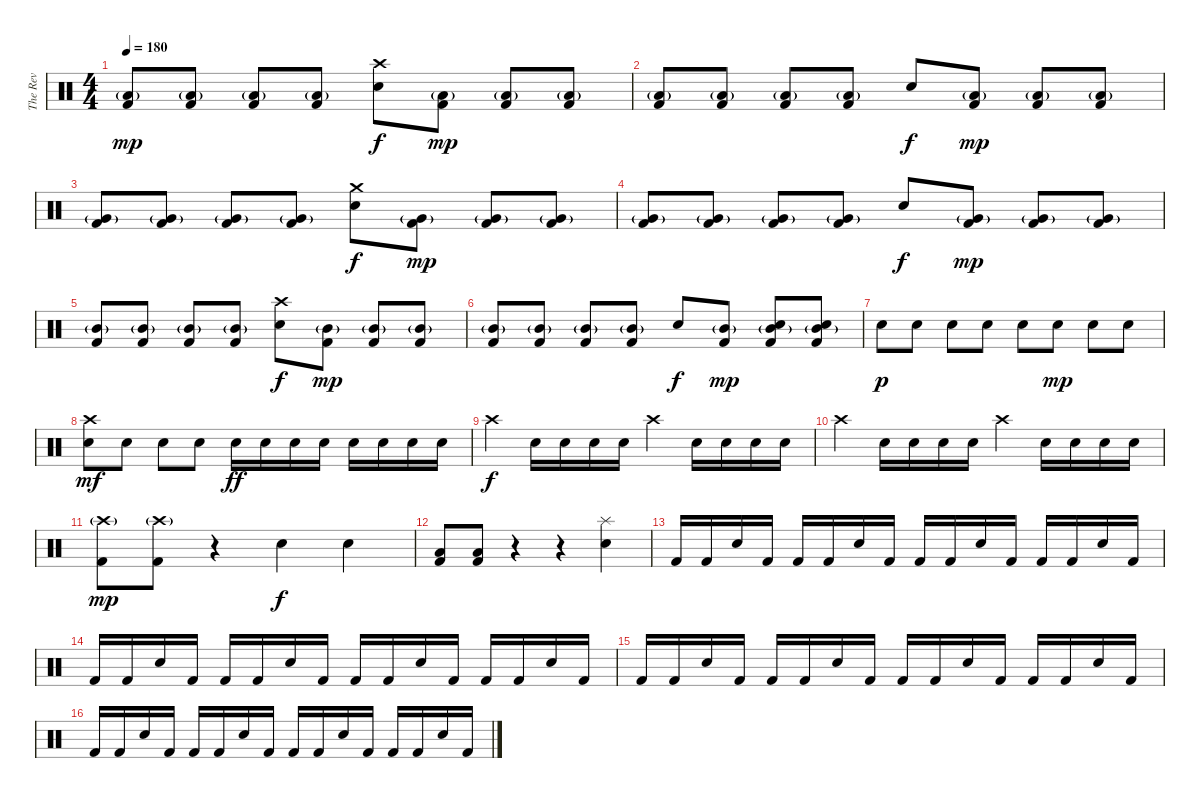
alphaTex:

\track ("The Rev" "The Rev") {instrument percussion}
\staff {score}
\articulation defaults
\ts (4 4)
\tempo 180
\clef neutral
\ks c
("Low Floor Tom (hit)"{g} "Kick (hit) 2").8{dy mp} ("Low Floor Tom (hit)"{g} "Kick (hit) 2").8 ("Low Floor Tom (hit)"{g} "Kick (hit) 2").8 ("Low Floor Tom (hit)"{g} "Kick (hit) 2").8 ("Crash high (hit)" "Snare (hit) 2").8{dy f} ("Low Floor Tom (hit)"{g} "Kick (hit) 2").8{dy mp} ("Low Floor Tom (hit)"{g} "Kick (hit) 2").8 ("Low Floor Tom (hit)"{g} "Kick (hit) 2").8 |
("Low Floor Tom (hit)"{g} "Kick (hit) 2").8 ("Low Floor Tom (hit)"{g} "Kick (hit) 2").8 ("Low Floor Tom (hit)"{g} "Kick (hit) 2").8 ("Low Floor Tom (hit)"{g} "Kick (hit) 2").8 "Snare (hit) 2".8{dy f} ("Low Floor Tom (hit)"{g} "Kick (hit) 2").8{dy mp} ("Low Floor Tom (hit)"{g} "Kick (hit) 2").8 ("Low Floor Tom (hit)"{g} "Kick (hit) 2").8 |
("Very Low Tom (hit)"{g} "Kick (hit) 2").8 ("Very Low Tom (hit)"{g} "Kick (hit) 2").8 ("Very Low Tom (hit)"{g} "Kick (hit) 2").8 ("Very Low Tom (hit)"{g} "Kick (hit) 2").8 ("Crash medium (hit)" "Snare (hit) 2").8{dy f} ("Very Low Tom (hit)"{g} "Kick (hit) 2").8{dy mp} ("Very Low Tom (hit)"{g} "Kick (hit) 2").8 ("Very Low Tom (hit)"{g} "Kick (hit) 2").8 |
("Very Low Tom (hit)"{g} "Kick (hit) 2").8 ("Very Low Tom (hit)"{g} "Kick (hit) 2").8 ("Very Low Tom (hit)"{g} "Kick (hit) 2").8 ("Very Low Tom (hit)"{g} "Kick (hit) 2").8 "Snare (hit) 2".8{dy f} ("Very Low Tom (hit)"{g} "Kick (hit) 2").8{dy mp} ("Very Low Tom (hit)"{g} "Kick (hit) 2").8 ("Very Low Tom (hit)"{g} "Kick (hit) 2").8 |
("Mid Tom (hit)"{g} "Kick (hit) 2").8 ("Mid Tom (hit)"{g} "Kick (hit) 2").8 ("Mid Tom (hit)"{g} "Kick (hit) 2").8 ("Mid Tom (hit)"{g} "Kick (hit) 2").8 ("Crash high (hit)" "Snare (hit) 2").8{dy f} ("Mid Tom (hit)"{g} "Kick (hit) 2").8{dy mp} ("Mid Tom (hit)"{g} "Kick (hit) 2").8 ("Mid Tom (hit)"{g} "Kick (hit) 2").8 |
("Mid Tom (hit)"{g} "Kick (hit) 2").8 ("Mid Tom (hit)"{g} "Kick (hit) 2").8 ("Mid Tom (hit)"{g} "Kick (hit) 2").8 ("Mid Tom (hit)"{g} "Kick (hit) 2").8 "Snare (hit) 2".8{dy f} ("Mid Tom (hit)"{g} "Kick (hit) 2").8{dy mp} ("Snare (hit) 2" "Mid Tom (hit)"{g} "Kick (hit) 2").8 ("Snare (hit) 2" "Mid Tom (hit)"{g} "Kick (hit) 2").8 |
"Snare (hit) 2".8{dy p} "Snare (hit) 2".8 "Snare (hit) 2".8 "Snare (hit) 2".8 "Snare (hit) 2".8 "Snare (hit) 2".8{dy mp} "Snare (hit) 2".8 "Snare (hit) 2".8 |
("Crash high (hit)" "Snare (hit) 2").8{dy mf} "Snare (hit) 2".8 "Snare (hit) 2".8 "Snare (hit) 2".8 "Snare (hit) 2".16{dy ff} "Snare (hit) 2".16 "Snare (hit) 2".16 "Snare (hit) 2".16 "Snare (hit) 2".16 "Snare (hit) 2".16 "Snare (hit) 2".16 "Snare (hit) 2".16 |
"Crash high (hit)".4{dy f} "Snare (hit) 2".16 "Snare (hit) 2".16 "Snare (hit) 2".16 "Snare (hit) 2".16 "Crash high (hit)".4 "Snare (hit) 2".16 "Snare (hit) 2".16 "Snare (hit) 2".16 "Snare (hit) 2".16 |
"Crash high (hit)".4 "Snare (hit) 2".16 "Snare (hit) 2".16 "Snare (hit) 2".16 "Snare (hit) 2".16 "Crash high (hit)".4 "Snare (hit) 2".16 "Snare (hit) 2".16 "Snare (hit) 2".16 "Snare (hit) 2".16 |
("Crash high (hit)"{g} "Kick (hit) 2").8{dy mp} ("Crash high (hit)"{g} "Kick (hit) 2").8 r.4 "Snare (hit) 2".4{dy f} "Snare (hit) 2".4 |
("Low Floor Tom (hit)" "Kick (hit) 2").8 ("Low Floor Tom (hit)" "Kick (hit) 2").8 r.4 r.4 ("Splash (hit)" "Snare (hit) 2").4 |
"Kick (hit) 2".16 "Kick (hit) 2".16 "Snare (hit) 2".16 "Kick (hit) 2".16 "Kick (hit) 2".16 "Kick (hit) 2".16 "Snare (hit) 2".16 "Kick (hit) 2".16 "Kick (hit) 2".16 "Kick (hit) 2".16 "Snare (hit) 2".16 "Kick (hit) 2".16 "Kick (hit) 2".16 "Kick (hit) 2".16 "Snare (hit) 2".16 "Kick (hit) 2".16 |
"Kick (hit) 2".16 "Kick (hit) 2".16 "Snare (hit) 2".16 "Kick (hit) 2".16 "Kick (hit) 2".16 "Kick (hit) 2".16 "Snare (hit) 2".16 "Kick (hit) 2".16 "Kick (hit) 2".16 "Kick (hit) 2".16 "Snare (hit) 2".16 "Kick (hit) 2".16 "Kick (hit) 2".16 "Kick (hit) 2".16 "Snare (hit) 2".16 "Kick (hit) 2".16 |
"Kick (hit) 2".16 "Kick (hit) 2".16 "Snare (hit) 2".16 "Kick (hit) 2".16 "Kick (hit) 2".16 "Kick (hit) 2".16 "Snare (hit) 2".16 "Kick (hit) 2".16 "Kick (hit) 2".16 "Kick (hit) 2".16 "Snare (hit) 2".16 "Kick (hit) 2".16 "Kick (hit) 2".16 "Kick (hit) 2".16 "Snare (hit) 2".16 "Kick (hit) 2".16 |
"Kick (hit) 2".16 "Kick (hit) 2".16 "Snare (hit) 2".16 "Kick (hit) 2".16 "Kick (hit) 2".16 "Kick (hit) 2".16 "Snare (hit) 2".16 "Kick (hit) 2".16 "Kick (hit) 2".16 "Kick (hit) 2".16 "Snare (hit) 2".16 "Kick (hit) 2".16 "Kick (hit) 2".16 "Kick (hit) 2".16 "Snare (hit) 2".16 "Kick (hit) 2".16
